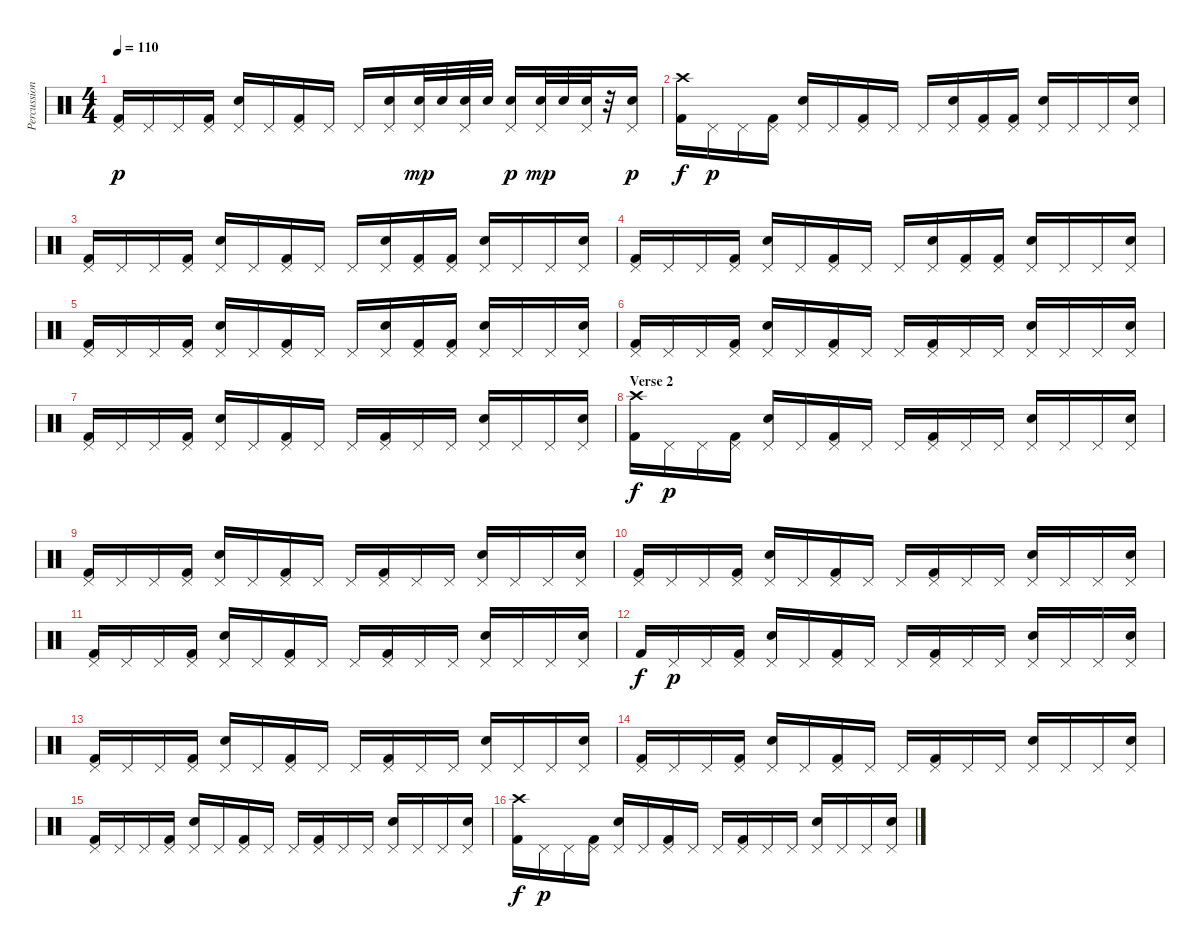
\track ("Percussion" "Percussion") {instrument percussion}
\staff {score}
\articulation defaults
\ts (4 4)
\tempo 110
\clef neutral
\ks c
("Pedal Hi-Hat (hit)" "Kick (hit) 2").16{dy p} "Pedal Hi-Hat (hit)".16 "Pedal Hi-Hat (hit)".16 ("Pedal Hi-Hat (hit)" "Kick (hit) 2").16 ("Pedal Hi-Hat (hit)" "Electric Snare (hit)").16 "Pedal Hi-Hat (hit)".16 ("Pedal Hi-Hat (hit)" "Kick (hit) 2").16 "Pedal Hi-Hat (hit)".16 "Pedal Hi-Hat (hit)".16 ("Pedal Hi-Hat (hit)" "Electric Snare (hit)").16 ("Pedal Hi-Hat (hit)" "Snare (hit)").32{dy mp} "Snare (hit)".32 ("Pedal Hi-Hat (hit)" "Snare (hit)").32 "Snare (hit)".32 ("Pedal Hi-Hat (hit)" "Electric Snare (hit)").16{dy p} ("Pedal Hi-Hat (hit)" "Snare (hit)").32{dy mp} "Snare (hit)".32 ("Pedal Hi-Hat (hit)" "Snare (hit)").32 r.32 ("Pedal Hi-Hat (hit)" "Electric Snare (hit)").16{dy p} |
("Crash high (hit)" "Kick (hit) 2").16{dy f volume 16} "Pedal Hi-Hat (hit)".16{dy p} "Pedal Hi-Hat (hit)".16 ("Pedal Hi-Hat (hit)" "Kick (hit) 2").16 ("Pedal Hi-Hat (hit)" "Electric Snare (hit)").16 "Pedal Hi-Hat (hit)".16 ("Pedal Hi-Hat (hit)" "Kick (hit) 2").16 "Pedal Hi-Hat (hit)".16 "Pedal Hi-Hat (hit)".16 ("Pedal Hi-Hat (hit)" "Electric Snare (hit)").16 ("Pedal Hi-Hat (hit)" "Kick (hit) 2").16 ("Pedal Hi-Hat (hit)" "Kick (hit) 2").16 ("Pedal Hi-Hat (hit)" "Electric Snare (hit)").16 "Pedal Hi-Hat (hit)".16 "Pedal Hi-Hat (hit)".16 ("Pedal Hi-Hat (hit)" "Electric Snare (hit)").16 |
("Pedal Hi-Hat (hit)" "Kick (hit) 2").16 "Pedal Hi-Hat (hit)".16 "Pedal Hi-Hat (hit)".16 ("Pedal Hi-Hat (hit)" "Kick (hit) 2").16 ("Pedal Hi-Hat (hit)" "Electric Snare (hit)").16 "Pedal Hi-Hat (hit)".16 ("Pedal Hi-Hat (hit)" "Kick (hit) 2").16 "Pedal Hi-Hat (hit)".16 "Pedal Hi-Hat (hit)".16 ("Pedal Hi-Hat (hit)" "Electric Snare (hit)").16 ("Pedal Hi-Hat (hit)" "Kick (hit) 2").16 ("Pedal Hi-Hat (hit)" "Kick (hit) 2").16 ("Pedal Hi-Hat (hit)" "Electric Snare (hit)").16 "Pedal Hi-Hat (hit)".16 "Pedal Hi-Hat (hit)".16 ("Pedal Hi-Hat (hit)" "Electric Snare (hit)").16 |
("Pedal Hi-Hat (hit)" "Kick (hit) 2").16 "Pedal Hi-Hat (hit)".16 "Pedal Hi-Hat (hit)".16 ("Pedal Hi-Hat (hit)" "Kick (hit) 2").16 ("Pedal Hi-Hat (hit)" "Electric Snare (hit)").16 "Pedal Hi-Hat (hit)".16 ("Pedal Hi-Hat (hit)" "Kick (hit) 2").16 "Pedal Hi-Hat (hit)".16 "Pedal Hi-Hat (hit)".16 ("Pedal Hi-Hat (hit)" "Electric Snare (hit)").16 ("Pedal Hi-Hat (hit)" "Kick (hit) 2").16 ("Pedal Hi-Hat (hit)" "Kick (hit) 2").16 ("Pedal Hi-Hat (hit)" "Electric Snare (hit)").16 "Pedal Hi-Hat (hit)".16 "Pedal Hi-Hat (hit)".16 ("Pedal Hi-Hat (hit)" "Electric Snare (hit)").16 |
("Pedal Hi-Hat (hit)" "Kick (hit) 2").16 "Pedal Hi-Hat (hit)".16 "Pedal Hi-Hat (hit)".16 ("Pedal Hi-Hat (hit)" "Kick (hit) 2").16 ("Pedal Hi-Hat (hit)" "Electric Snare (hit)").16 "Pedal Hi-Hat (hit)".16 ("Pedal Hi-Hat (hit)" "Kick (hit) 2").16 "Pedal Hi-Hat (hit)".16 "Pedal Hi-Hat (hit)".16 ("Pedal Hi-Hat (hit)" "Electric Snare (hit)").16 ("Pedal Hi-Hat (hit)" "Kick (hit) 2").16 ("Pedal Hi-Hat (hit)" "Kick (hit) 2").16 ("Pedal Hi-Hat (hit)" "Electric Snare (hit)").16 "Pedal Hi-Hat (hit)".16 "Pedal Hi-Hat (hit)".16 ("Pedal Hi-Hat (hit)" "Electric Snare (hit)").16 |
("Pedal Hi-Hat (hit)" "Kick (hit) 2").16 "Pedal Hi-Hat (hit)".16 "Pedal Hi-Hat (hit)".16 ("Pedal Hi-Hat (hit)" "Kick (hit) 2").16 ("Pedal Hi-Hat (hit)" "Electric Snare (hit)").16 "Pedal Hi-Hat (hit)".16 ("Pedal Hi-Hat (hit)" "Kick (hit) 2").16 "Pedal Hi-Hat (hit)".16 "Pedal Hi-Hat (hit)".16 ("Pedal Hi-Hat (hit)" "Kick (hit) 2").16 "Pedal Hi-Hat (hit)".16 "Pedal Hi-Hat (hit)".16 ("Pedal Hi-Hat (hit)" "Electric Snare (hit)").16 "Pedal Hi-Hat (hit)".16 "Pedal Hi-Hat (hit)".16 ("Pedal Hi-Hat (hit)" "Electric Snare (hit)").16 |
("Pedal Hi-Hat (hit)" "Kick (hit) 2").16 "Pedal Hi-Hat (hit)".16 "Pedal Hi-Hat (hit)".16 ("Pedal Hi-Hat (hit)" "Kick (hit) 2").16 ("Pedal Hi-Hat (hit)" "Electric Snare (hit)").16 "Pedal Hi-Hat (hit)".16 ("Pedal Hi-Hat (hit)" "Kick (hit) 2").16 "Pedal Hi-Hat (hit)".16 "Pedal Hi-Hat (hit)".16 ("Pedal Hi-Hat (hit)" "Kick (hit) 2").16 "Pedal Hi-Hat (hit)".16 "Pedal Hi-Hat (hit)".16 ("Pedal Hi-Hat (hit)" "Electric Snare (hit)").16 "Pedal Hi-Hat (hit)".16 "Pedal Hi-Hat (hit)".16 ("Pedal Hi-Hat (hit)" "Electric Snare (hit)").16 |
\section ("" "Verse 2")
("Crash high (hit)" "Kick (hit) 2").16{dy f volume 16} "Pedal Hi-Hat (hit)".16{dy p} "Pedal Hi-Hat (hit)".16 ("Pedal Hi-Hat (hit)" "Kick (hit) 2").16 ("Pedal Hi-Hat (hit)" "Electric Snare (hit)").16 "Pedal Hi-Hat (hit)".16 ("Pedal Hi-Hat (hit)" "Kick (hit) 2").16 "Pedal Hi-Hat (hit)".16 "Pedal Hi-Hat (hit)".16 ("Pedal Hi-Hat (hit)" "Kick (hit) 2").16 "Pedal Hi-Hat (hit)".16 "Pedal Hi-Hat (hit)".16 ("Pedal Hi-Hat (hit)" "Electric Snare (hit)").16 "Pedal Hi-Hat (hit)".16 "Pedal Hi-Hat (hit)".16 ("Pedal Hi-Hat (hit)" "Electric Snare (hit)").16 |
("Pedal Hi-Hat (hit)" "Kick (hit) 2").16 "Pedal Hi-Hat (hit)".16 "Pedal Hi-Hat (hit)".16 ("Pedal Hi-Hat (hit)" "Kick (hit) 2").16 ("Pedal Hi-Hat (hit)" "Electric Snare (hit)").16 "Pedal Hi-Hat (hit)".16 ("Pedal Hi-Hat (hit)" "Kick (hit) 2").16 "Pedal Hi-Hat (hit)".16 "Pedal Hi-Hat (hit)".16 ("Pedal Hi-Hat (hit)" "Kick (hit) 2").16 "Pedal Hi-Hat (hit)".16 "Pedal Hi-Hat (hit)".16 ("Pedal Hi-Hat (hit)" "Electric Snare (hit)").16 "Pedal Hi-Hat (hit)".16 "Pedal Hi-Hat (hit)".16 ("Pedal Hi-Hat (hit)" "Electric Snare (hit)").16 |
("Pedal Hi-Hat (hit)" "Kick (hit) 2").16 "Pedal Hi-Hat (hit)".16 "Pedal Hi-Hat (hit)".16 ("Pedal Hi-Hat (hit)" "Kick (hit) 2").16 ("Pedal Hi-Hat (hit)" "Electric Snare (hit)").16 "Pedal Hi-Hat (hit)".16 ("Pedal Hi-Hat (hit)" "Kick (hit) 2").16 "Pedal Hi-Hat (hit)".16 "Pedal Hi-Hat (hit)".16 ("Pedal Hi-Hat (hit)" "Kick (hit) 2").16 "Pedal Hi-Hat (hit)".16 "Pedal Hi-Hat (hit)".16 ("Pedal Hi-Hat (hit)" "Electric Snare (hit)").16 "Pedal Hi-Hat (hit)".16 "Pedal Hi-Hat (hit)".16 ("Pedal Hi-Hat (hit)" "Electric Snare (hit)").16 |
("Pedal Hi-Hat (hit)" "Kick (hit) 2").16 "Pedal Hi-Hat (hit)".16 "Pedal Hi-Hat (hit)".16 ("Pedal Hi-Hat (hit)" "Kick (hit) 2").16 ("Pedal Hi-Hat (hit)" "Electric Snare (hit)").16 "Pedal Hi-Hat (hit)".16 ("Pedal Hi-Hat (hit)" "Kick (hit) 2").16 "Pedal Hi-Hat (hit)".16 "Pedal Hi-Hat (hit)".16 ("Pedal Hi-Hat (hit)" "Kick (hit) 2").16 "Pedal Hi-Hat (hit)".16 "Pedal Hi-Hat (hit)".16 ("Pedal Hi-Hat (hit)" "Electric Snare (hit)").16 "Pedal Hi-Hat (hit)".16 "Pedal Hi-Hat (hit)".16 ("Pedal Hi-Hat (hit)" "Electric Snare (hit)").16 |
"Kick (hit) 2".16{dy f} "Pedal Hi-Hat (hit)".16{dy p} "Pedal Hi-Hat (hit)".16 ("Pedal Hi-Hat (hit)" "Kick (hit) 2").16 ("Pedal Hi-Hat (hit)" "Electric Snare (hit)").16 "Pedal Hi-Hat (hit)".16 ("Pedal Hi-Hat (hit)" "Kick (hit) 2").16 "Pedal Hi-Hat (hit)".16 "Pedal Hi-Hat (hit)".16 ("Pedal Hi-Hat (hit)" "Kick (hit) 2").16 "Pedal Hi-Hat (hit)".16 "Pedal Hi-Hat (hit)".16 ("Pedal Hi-Hat (hit)" "Electric Snare (hit)").16 "Pedal Hi-Hat (hit)".16 "Pedal Hi-Hat (hit)".16 ("Pedal Hi-Hat (hit)" "Electric Snare (hit)").16 |
("Pedal Hi-Hat (hit)" "Kick (hit) 2").16 "Pedal Hi-Hat (hit)".16 "Pedal Hi-Hat (hit)".16 ("Pedal Hi-Hat (hit)" "Kick (hit) 2").16 ("Pedal Hi-Hat (hit)" "Electric Snare (hit)").16 "Pedal Hi-Hat (hit)".16 ("Pedal Hi-Hat (hit)" "Kick (hit) 2").16 "Pedal Hi-Hat (hit)".16 "Pedal Hi-Hat (hit)".16 ("Pedal Hi-Hat (hit)" "Kick (hit) 2").16 "Pedal Hi-Hat (hit)".16 "Pedal Hi-Hat (hit)".16 ("Pedal Hi-Hat (hit)" "Electric Snare (hit)").16 "Pedal Hi-Hat (hit)".16 "Pedal Hi-Hat (hit)".16 ("Pedal Hi-Hat (hit)" "Electric Snare (hit)").16 |
("Pedal Hi-Hat (hit)" "Kick (hit) 2").16 "Pedal Hi-Hat (hit)".16 "Pedal Hi-Hat (hit)".16 ("Pedal Hi-Hat (hit)" "Kick (hit) 2").16 ("Pedal Hi-Hat (hit)" "Electric Snare (hit)").16 "Pedal Hi-Hat (hit)".16 ("Pedal Hi-Hat (hit)" "Kick (hit) 2").16 "Pedal Hi-Hat (hit)".16 "Pedal Hi-Hat (hit)".16 ("Pedal Hi-Hat (hit)" "Kick (hit) 2").16 "Pedal Hi-Hat (hit)".16 "Pedal Hi-Hat (hit)".16 ("Pedal Hi-Hat (hit)" "Electric Snare (hit)").16 "Pedal Hi-Hat (hit)".16 "Pedal Hi-Hat (hit)".16 ("Pedal Hi-Hat (hit)" "Electric Snare (hit)").16 |
("Pedal Hi-Hat (hit)" "Kick (hit) 2").16 "Pedal Hi-Hat (hit)".16 "Pedal Hi-Hat (hit)".16 ("Pedal Hi-Hat (hit)" "Kick (hit) 2").16 ("Pedal Hi-Hat (hit)" "Electric Snare (hit)").16 "Pedal Hi-Hat (hit)".16 ("Pedal Hi-Hat (hit)" "Kick (hit) 2").16 "Pedal Hi-Hat (hit)".16 "Pedal Hi-Hat (hit)".16 ("Pedal Hi-Hat (hit)" "Kick (hit) 2").16 "Pedal Hi-Hat (hit)".16 "Pedal Hi-Hat (hit)".16 ("Pedal Hi-Hat (hit)" "Electric Snare (hit)").16 "Pedal Hi-Hat (hit)".16 "Pedal Hi-Hat (hit)".16 ("Pedal Hi-Hat (hit)" "Electric Snare (hit)").16 |
("Crash high (hit)" "Kick (hit) 2").16{dy f volume 16} "Pedal Hi-Hat (hit)".16{dy p} "Pedal Hi-Hat (hit)".16 ("Pedal Hi-Hat (hit)" "Kick (hit) 2").16 ("Pedal Hi-Hat (hit)" "Electric Snare (hit)").16 "Pedal Hi-Hat (hit)".16 ("Pedal Hi-Hat (hit)" "Kick (hit) 2").16 "Pedal Hi-Hat (hit)".16 "Pedal Hi-Hat (hit)".16 ("Pedal Hi-Hat (hit)" "Kick (hit) 2").16 "Pedal Hi-Hat (hit)".16 "Pedal Hi-Hat (hit)".16 ("Pedal Hi-Hat (hit)" "Electric Snare (hit)").16 "Pedal Hi-Hat (hit)".16 "Pedal Hi-Hat (hit)".16 ("Pedal Hi-Hat (hit)" "Electric Snare (hit)").16
